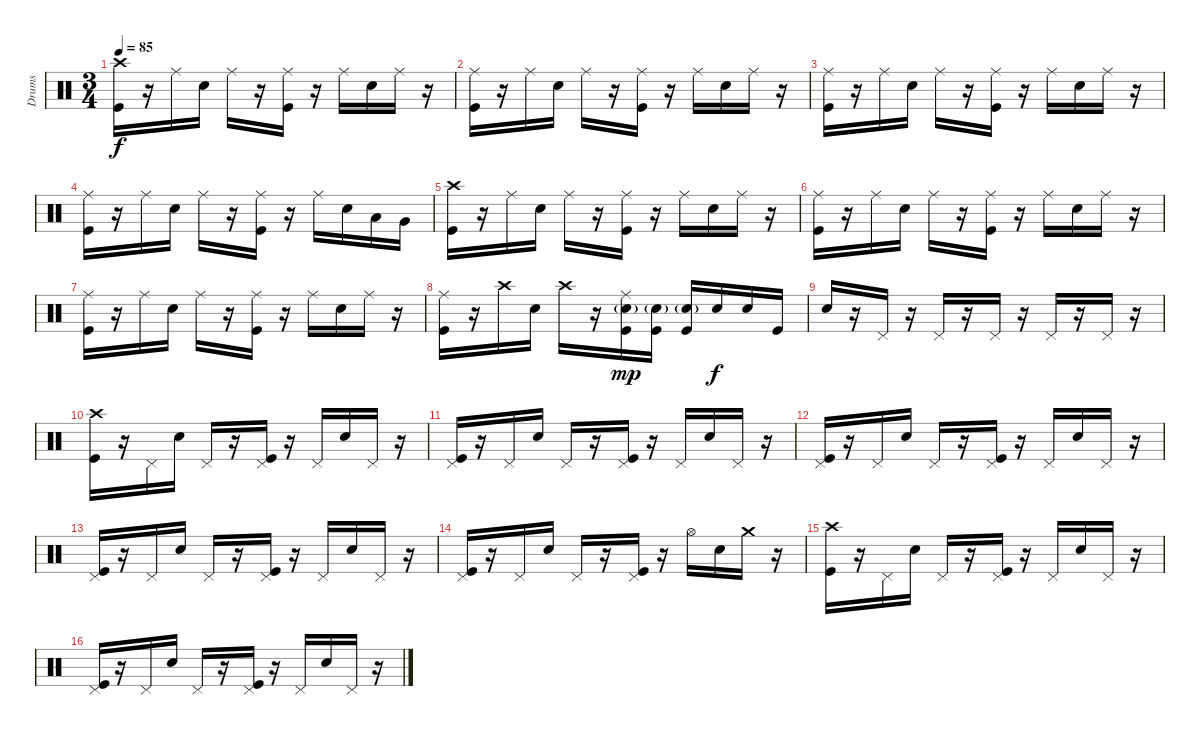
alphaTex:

\track ("Drums" "Drums") {instrument percussion}
\staff {score}
\articulation defaults
\ts (3 4)
\tempo 85
\clef neutral
\ks c
("Crash high (hit)" "Kick (hit)").16{dy f} r.16 "Ride (middle)".16 "Electric Snare (hit)".16 "Ride (middle)".16 r.16 ("Ride (middle)" "Kick (hit)").16 r.16 "Ride (middle)".16 "Electric Snare (hit)".16 "Ride (middle)".16 r.16 |
("Ride (middle)" "Kick (hit)").16 r.16 "Ride (middle)".16 "Electric Snare (hit)".16 "Ride (middle)".16 r.16 ("Ride (middle)" "Kick (hit)").16 r.16 "Ride (middle)".16 "Electric Snare (hit)".16 "Ride (middle)".16 r.16 |
("Ride (middle)" "Kick (hit)").16 r.16 "Ride (middle)".16 "Electric Snare (hit)".16 "Ride (middle)".16 r.16 ("Ride (middle)" "Kick (hit)").16 r.16 "Ride (middle)".16 "Electric Snare (hit)".16 "Ride (middle)".16 r.16 |
("Ride (middle)" "Kick (hit)").16 r.16 "Ride (middle)".16 "Electric Snare (hit)".16 "Ride (middle)".16 r.16 ("Ride (middle)" "Kick (hit)").16 r.16 "Ride (middle)".16 "Electric Snare (hit)".16 "Low Tom (hit)".16 "Very Low Tom (hit)".16 |
("Crash high (hit)" "Kick (hit)").16 r.16 "Ride (middle)".16 "Electric Snare (hit)".16 "Ride (middle)".16 r.16 ("Ride (middle)" "Kick (hit)").16 r.16 "Ride (middle)".16 "Electric Snare (hit)".16 "Ride (middle)".16 r.16 |
("Ride (middle)" "Kick (hit)").16 r.16 "Ride (middle)".16 "Electric Snare (hit)".16 "Ride (middle)".16 r.16 ("Ride (middle)" "Kick (hit)").16 r.16 "Ride (middle)".16 "Electric Snare (hit)".16 "Ride (middle)".16 r.16 |
("Ride (middle)" "Kick (hit)").16 r.16 "Ride (middle)".16 "Electric Snare (hit)".16 "Ride (middle)".16 r.16 ("Ride (middle)" "Kick (hit)").16 r.16 "Ride (middle)".16 "Electric Snare (hit)".16 "Ride (middle)".16 r.16 |
("Ride (middle)" "Kick (hit)").16 r.16 "Crash high (hit)".16 "Electric Snare (hit)".16 "Crash high (hit)".16 r.16 ("Ride (middle)" "Electric Snare (hit)"{g} "Kick (hit)").16{dy mp} ("Electric Snare (hit)"{g} "Kick (hit)").16 ("Electric Snare (hit)"{g} "Kick (hit)").16 "Electric Snare (hit)".16{dy f} "Electric Snare (hit)".16 "Kick (hit)".16 |
"Electric Snare (hit)".16 r.16 "Pedal Hi-Hat (hit)".16 r.16 "Pedal Hi-Hat (hit)".16 r.16 "Pedal Hi-Hat (hit)".16 r.16 "Pedal Hi-Hat (hit)".16 r.16 "Pedal Hi-Hat (hit)".16 r.16 |
("Crash high (hit)" "Kick (hit)").16 r.16 "Pedal Hi-Hat (hit)".16 "Electric Snare (hit)".16 "Pedal Hi-Hat (hit)".16 r.16 ("Pedal Hi-Hat (hit)" "Kick (hit)").16 r.16 "Pedal Hi-Hat (hit)".16 "Electric Snare (hit)".16 "Pedal Hi-Hat (hit)".16 r.16 |
("Pedal Hi-Hat (hit)" "Kick (hit)").16 r.16 "Pedal Hi-Hat (hit)".16 "Electric Snare (hit)".16 "Pedal Hi-Hat (hit)".16 r.16 ("Pedal Hi-Hat (hit)" "Kick (hit)").16 r.16 "Pedal Hi-Hat (hit)".16 "Electric Snare (hit)".16 "Pedal Hi-Hat (hit)".16 r.16 |
("Pedal Hi-Hat (hit)" "Kick (hit)").16 r.16 "Pedal Hi-Hat (hit)".16 "Electric Snare (hit)".16 "Pedal Hi-Hat (hit)".16 r.16 ("Pedal Hi-Hat (hit)" "Kick (hit)").16 r.16 "Pedal Hi-Hat (hit)".16 "Electric Snare (hit)".16 "Pedal Hi-Hat (hit)".16 r.16 |
("Pedal Hi-Hat (hit)" "Kick (hit)").16 r.16 "Pedal Hi-Hat (hit)".16 "Electric Snare (hit)".16 "Pedal Hi-Hat (hit)".16 r.16 ("Pedal Hi-Hat (hit)" "Kick (hit)").16 r.16 "Pedal Hi-Hat (hit)".16 "Electric Snare (hit)".16 "Pedal Hi-Hat (hit)".16 r.16 |
("Pedal Hi-Hat (hit)" "Kick (hit)").16 r.16 "Pedal Hi-Hat (hit)".16 "Electric Snare (hit)".16 "Pedal Hi-Hat (hit)".16 r.16 ("Pedal Hi-Hat (hit)" "Kick (hit)").16 r.16 "Hi-Hat (open)".16 "Electric Snare (hit)".16 "Crash medium (hit)".16 r.16 |
("Crash high (hit)" "Kick (hit)").16 r.16 "Pedal Hi-Hat (hit)".16 "Electric Snare (hit)".16 "Pedal Hi-Hat (hit)".16 r.16 ("Pedal Hi-Hat (hit)" "Kick (hit)").16 r.16 "Pedal Hi-Hat (hit)".16 "Electric Snare (hit)".16 "Pedal Hi-Hat (hit)".16 r.16 |
("Pedal Hi-Hat (hit)" "Kick (hit)").16 r.16 "Pedal Hi-Hat (hit)".16 "Electric Snare (hit)".16 "Pedal Hi-Hat (hit)".16 r.16 ("Pedal Hi-Hat (hit)" "Kick (hit)").16 r.16 "Pedal Hi-Hat (hit)".16 "Electric Snare (hit)".16 "Pedal Hi-Hat (hit)".16 r.16
